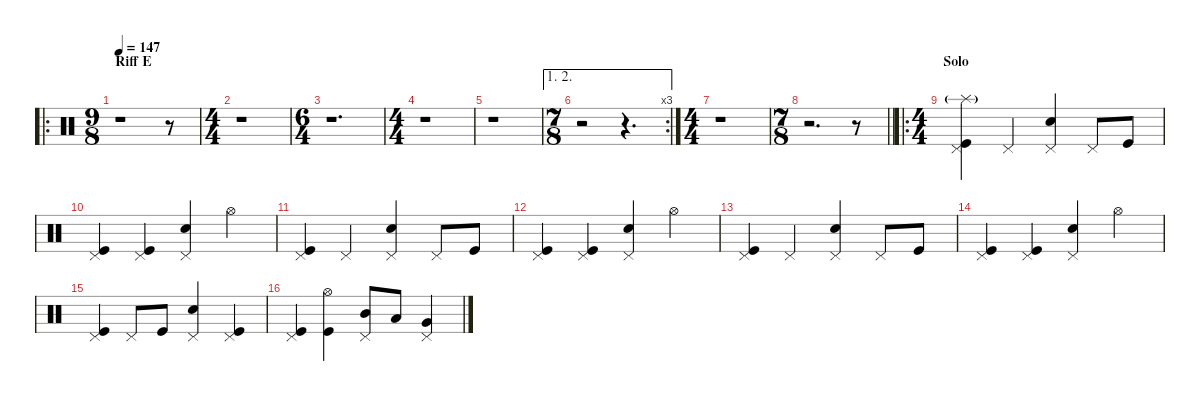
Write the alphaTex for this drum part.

\defaultSystemsLayout 4
\hideDynamics
\bracketExtendMode nobrackets
\singleTrackTrackNamePolicy hidden
\multiTrackTrackNamePolicy hidden
\firstSystemTrackNameMode fullname
\otherSystemsTrackNameOrientation horizontal
\track ("Percussion" "drm.") {instrument percussion}
\staff {score}
\articulation defaults
\ro
\ts (9 8)
\beaming (8 3 3 3)
\section ("" "Riff E")
\tempo 147
\clef neutral
\ks c
r.1{dy f beam Down} r.8{beam Down} |
\ts (4 4)
\beaming (8 2 2 2 2)
r.1{beam Down} |
\ts (6 4)
\beaming (8 6 6)
r.1{d beam Down} |
\ts (4 4)
\beaming (8 2 2 2 2)
r.1{beam Down} |
r.1{beam Down} |
\ae (1 2)
\rc 3
\ts (7 8)
\beaming (8 3 2 2)
r.2{beam Down} r.4{d beam Down} |
\ts (4 4)
\beaming (8 2 2 2 2)
r.1{beam Down} |
\ts (7 8)
\beaming (8 3 2 2)
\barLineRight lightlight
r.2{d beam Down} r.8{beam Down} |
\ro
\ts (4 4)
\beaming (8 2 2 2 2)
\section ("" "Solo")
("Splash (hit)"{g} "Kick (hit)" "Pedal Hi-Hat (hit)").4{beam Down} "Pedal Hi-Hat (hit)".4{beam Up} ("Snare (hit) 2" "Pedal Hi-Hat (hit)").4{beam Up} "Pedal Hi-Hat (hit)".8{beam Up} "Kick (hit)".8{beam Up} |
("Kick (hit)" "Pedal Hi-Hat (hit)").4{beam Up} ("Kick (hit)" "Pedal Hi-Hat (hit)").4{beam Up} ("Snare (hit) 2" "Pedal Hi-Hat (hit)").4{beam Up} "Hi-Hat (open)".4{beam Down} |
("Kick (hit)" "Pedal Hi-Hat (hit)").4{beam Up} "Pedal Hi-Hat (hit)".4{beam Up} ("Snare (hit) 2" "Pedal Hi-Hat (hit)").4{beam Up} "Pedal Hi-Hat (hit)".8{beam Up} "Kick (hit)".8{beam Up} |
("Kick (hit)" "Pedal Hi-Hat (hit)").4{beam Up} ("Kick (hit)" "Pedal Hi-Hat (hit)").4{beam Up} ("Snare (hit) 2" "Pedal Hi-Hat (hit)").4{beam Up} "Hi-Hat (open)".4{beam Down} |
("Kick (hit)" "Pedal Hi-Hat (hit)").4{beam Up} "Pedal Hi-Hat (hit)".4{beam Up} ("Snare (hit) 2" "Pedal Hi-Hat (hit)").4{beam Up} "Pedal Hi-Hat (hit)".8{beam Up} "Kick (hit)".8{beam Up} |
("Kick (hit)" "Pedal Hi-Hat (hit)").4{beam Up} ("Kick (hit)" "Pedal Hi-Hat (hit)").4{beam Up} ("Snare (hit) 2" "Pedal Hi-Hat (hit)").4{beam Up} "Hi-Hat (open)".4{beam Down} |
("Kick (hit)" "Pedal Hi-Hat (hit)").4{beam Up} "Pedal Hi-Hat (hit)".8{beam Up} "Kick (hit)".8{beam Up} ("Snare (hit) 2" "Pedal Hi-Hat (hit)").4{beam Up} ("Kick (hit)" "Pedal Hi-Hat (hit)").4{beam Up} |
("Kick (hit)" "Pedal Hi-Hat (hit)").4{beam Up} ("Kick (hit)" "Hi-Hat (open)").4{beam Down} ("Mid Tom (hit)" "Pedal Hi-Hat (hit)").8{beam Up} "Low Tom (hit)".8{dy mf beam Up} ("Very Low Tom (hit)" "Pedal Hi-Hat (hit)").4{dy f beam Up}
